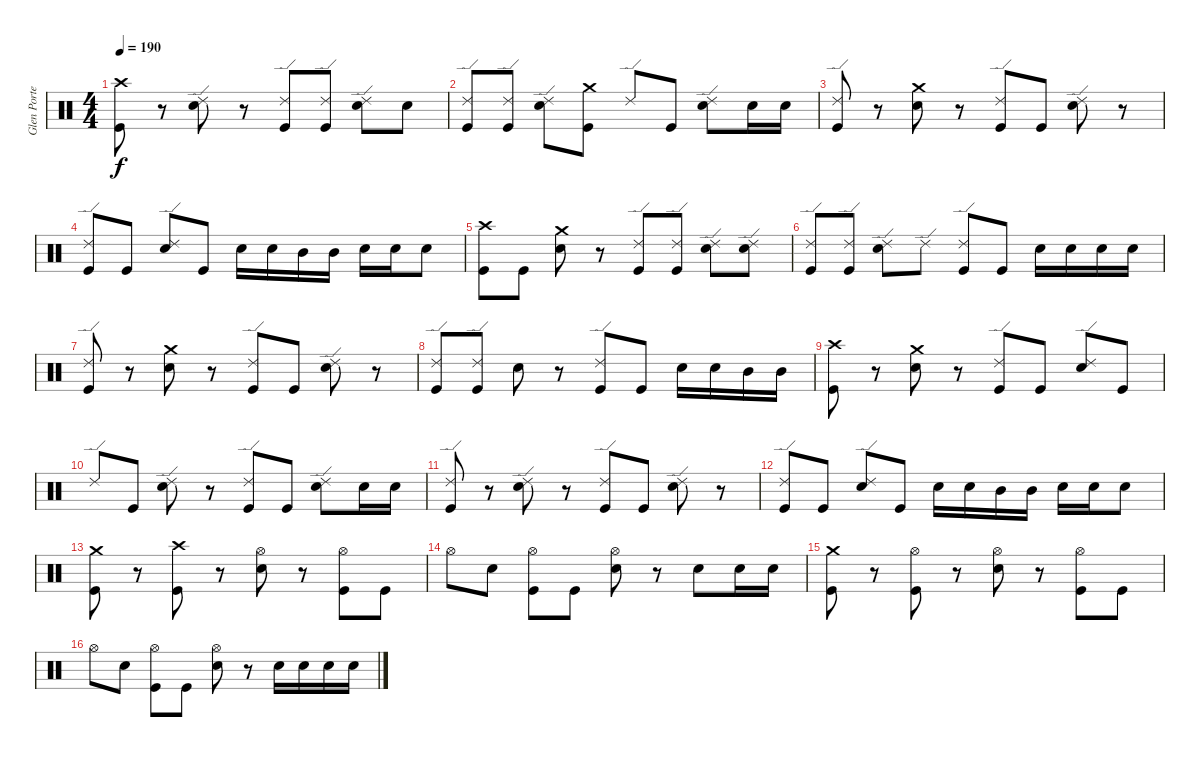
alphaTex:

\track ("Glen Porter" "Glen Porte") {instrument percussion}
\staff {score}
\articulation defaults
\ts (4 4)
\tempo 190
\clef neutral
\ks c
("Crash high (hit)" "Kick (hit)").8{dy f} r.8 ("Ride (edge) 2" "Snare (hit) 2").8 r.8 ("Ride (edge) 2" "Kick (hit)").8 ("Ride (edge) 2" "Kick (hit)").8 ("Ride (edge) 2" "Snare (hit) 2").8 "Snare (hit) 2".8 |
("Ride (edge) 2" "Kick (hit)").8 ("Ride (edge) 2" "Kick (hit)").8 ("Ride (edge) 2" "Snare (hit) 2").8 ("Crash medium (hit)" "Kick (hit)").8 "Ride (edge) 2".8 "Kick (hit)".8 ("Ride (edge) 2" "Snare (hit) 2").8 "Snare (hit) 2".16 "Snare (hit) 2".16 |
("Ride (edge) 2" "Kick (hit)").8 r.8 ("Crash medium (hit)" "Snare (hit) 2").8 r.8 ("Ride (edge) 2" "Kick (hit)").8 "Kick (hit)".8 ("Ride (edge) 2" "Snare (hit) 2").8 r.8 |
("Ride (edge) 2" "Kick (hit)").8 "Kick (hit)".8 ("Ride (edge) 2" "Snare (hit) 2").8 "Kick (hit)".8 "Snare (hit) 2".16 "Snare (hit) 2".16 "Mid Tom (hit)".16 "Mid Tom (hit)".16 "Snare (hit) 2".16 "Snare (hit) 2".16 "Snare (hit) 2".8 |
("Crash high (hit)" "Kick (hit)").8 "Kick (hit)".8 ("Crash medium (hit)" "Snare (hit) 2").8 r.8 ("Ride (edge) 2" "Kick (hit)").8 ("Ride (edge) 2" "Kick (hit)").8 ("Ride (edge) 2" "Snare (hit) 2").8 ("Ride (edge) 2" "Snare (hit) 2").8 |
("Ride (edge) 2" "Kick (hit)").8 ("Ride (edge) 2" "Kick (hit)").8 ("Ride (edge) 2" "Snare (hit) 2").8 "Ride (edge) 2".8 ("Ride (edge) 2" "Kick (hit)").8 "Kick (hit)".8 "Snare (hit) 2".16 "Snare (hit) 2".16 "Snare (hit) 2".16 "Snare (hit) 2".16 |
("Ride (edge) 2" "Kick (hit)").8 r.8 ("Crash medium (hit)" "Snare (hit) 2").8 r.8 ("Ride (edge) 2" "Kick (hit)").8 "Kick (hit)".8 ("Ride (edge) 2" "Snare (hit) 2").8 r.8 |
("Ride (edge) 2" "Kick (hit)").8 ("Ride (edge) 2" "Kick (hit)").8 "Snare (hit) 2".8 r.8 ("Ride (edge) 2" "Kick (hit)").8 "Kick (hit)".8 "Snare (hit) 2".16 "Snare (hit) 2".16 "Mid Tom (hit)".16 "Mid Tom (hit)".16 |
("Crash high (hit)" "Kick (hit)").8 r.8 ("Crash medium (hit)" "Snare (hit) 2").8 r.8 ("Ride (edge) 2" "Kick (hit)").8 "Kick (hit)".8 ("Ride (edge) 2" "Snare (hit) 2").8 "Kick (hit)".8 |
"Ride (edge) 2".8 "Kick (hit)".8 ("Ride (edge) 2" "Snare (hit) 2").8 r.8 ("Ride (edge) 2" "Kick (hit)").8 "Kick (hit)".8 ("Ride (edge) 2" "Snare (hit) 2").8 "Snare (hit) 2".16 "Snare (hit) 2".16 |
("Ride (edge) 2" "Kick (hit)").8 r.8 ("Ride (edge) 2" "Snare (hit) 2").8 r.8 ("Ride (edge) 2" "Kick (hit)").8 "Kick (hit)".8 ("Ride (edge) 2" "Snare (hit) 2").8 r.8 |
("Ride (edge) 2" "Kick (hit)").8 "Kick (hit)".8 ("Ride (edge) 2" "Snare (hit) 2").8 "Kick (hit)".8 "Snare (hit) 2".16 "Snare (hit) 2".16 "Mid Tom (hit)".16 "Mid Tom (hit)".16 "Snare (hit) 2".16 "Snare (hit) 2".16 "Snare (hit) 2".8 |
("Crash medium (hit)" "Kick (hit)").8 r.8 ("Crash high (hit)" "Kick (hit)").8 r.8 ("Hi-Hat (open)" "Snare (hit) 2").8 r.8 ("Hi-Hat (open)" "Kick (hit)").8 "Kick (hit)".8 |
"Hi-Hat (open)".8 "Snare (hit) 2".8 ("Hi-Hat (open)" "Kick (hit)").8 "Kick (hit)".8 ("Hi-Hat (open)" "Snare (hit) 2").8 r.8 "Snare (hit) 2".8 "Snare (hit) 2".16 "Snare (hit) 2".16 |
("Crash medium (hit)" "Kick (hit)").8 r.8 ("Hi-Hat (open)" "Kick (hit)").8 r.8 ("Hi-Hat (open)" "Snare (hit) 2").8 r.8 ("Hi-Hat (open)" "Kick (hit)").8 "Kick (hit)".8 |
"Hi-Hat (open)".8 "Snare (hit) 2".8 ("Hi-Hat (open)" "Kick (hit)").8 "Kick (hit)".8 ("Hi-Hat (open)" "Snare (hit) 2").8 r.8 "Snare (hit) 2".16 "Snare (hit) 2".16 "Snare (hit) 2".16 "Snare (hit) 2".16
